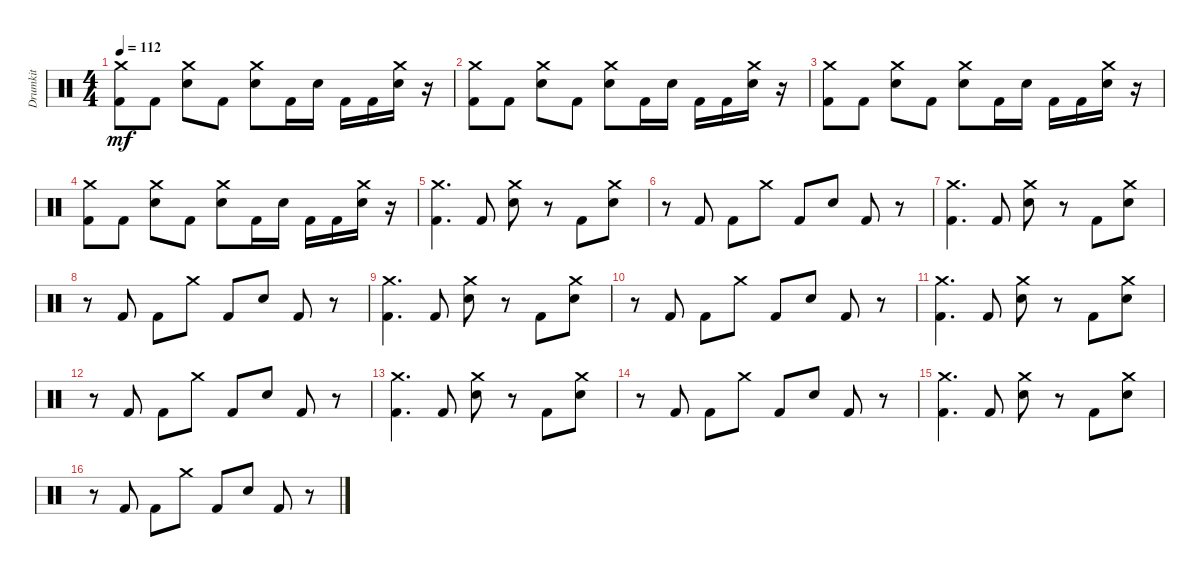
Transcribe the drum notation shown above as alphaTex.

\track ("Drumkit" "Drumkit") {instrument percussion}
\staff {score}
\articulation defaults
\ts (4 4)
\tempo 112
\clef neutral
\ks c
("Kick (hit) 2" "Crash medium (hit)").8{dy mf} "Kick (hit) 2".8 ("Snare (hit) 2" "Crash medium (hit)").8 "Kick (hit) 2".8 ("Snare (hit) 2" "Crash medium (hit)").8 "Kick (hit) 2".16 "Snare (hit) 2".16 "Kick (hit) 2".16 "Kick (hit) 2".16 ("Snare (hit) 2" "Crash medium (hit)").16 r.16 |
("Kick (hit) 2" "Crash medium (hit)").8 "Kick (hit) 2".8 ("Snare (hit) 2" "Crash medium (hit)").8 "Kick (hit) 2".8 ("Snare (hit) 2" "Crash medium (hit)").8 "Kick (hit) 2".16 "Snare (hit) 2".16 "Kick (hit) 2".16 "Kick (hit) 2".16 ("Snare (hit) 2" "Crash medium (hit)").16 r.16 |
("Kick (hit) 2" "Crash medium (hit)").8 "Kick (hit) 2".8 ("Snare (hit) 2" "Crash medium (hit)").8 "Kick (hit) 2".8 ("Snare (hit) 2" "Crash medium (hit)").8 "Kick (hit) 2".16 "Snare (hit) 2".16 "Kick (hit) 2".16 "Kick (hit) 2".16 ("Snare (hit) 2" "Crash medium (hit)").16 r.16 |
("Kick (hit) 2" "Crash medium (hit)").8 "Kick (hit) 2".8 ("Snare (hit) 2" "Crash medium (hit)").8 "Kick (hit) 2".8 ("Snare (hit) 2" "Crash medium (hit)").8 "Kick (hit) 2".16 "Snare (hit) 2".16 "Kick (hit) 2".16 "Kick (hit) 2".16 ("Snare (hit) 2" "Crash medium (hit)").16 r.16 |
("Kick (hit) 2" "Crash medium (hit)").4{d} "Kick (hit) 2".8 ("Snare (hit) 2" "Crash medium (hit)").8 r.8 "Kick (hit) 2".8 ("Snare (hit) 2" "Crash medium (hit)").8 |
r.8 "Kick (hit) 2".8 "Kick (hit) 2".8 "Crash medium (hit)".8 "Kick (hit) 2".8 "Snare (hit) 2".8 "Kick (hit) 2".8 r.8 |
("Kick (hit) 2" "Crash medium (hit)").4{d} "Kick (hit) 2".8 ("Snare (hit) 2" "Crash medium (hit)").8 r.8 "Kick (hit) 2".8 ("Snare (hit) 2" "Crash medium (hit)").8 |
r.8 "Kick (hit) 2".8 "Kick (hit) 2".8 "Crash medium (hit)".8 "Kick (hit) 2".8 "Snare (hit) 2".8 "Kick (hit) 2".8 r.8 |
("Kick (hit) 2" "Crash medium (hit)").4{d} "Kick (hit) 2".8 ("Snare (hit) 2" "Crash medium (hit)").8 r.8 "Kick (hit) 2".8 ("Snare (hit) 2" "Crash medium (hit)").8 |
r.8 "Kick (hit) 2".8 "Kick (hit) 2".8 "Crash medium (hit)".8 "Kick (hit) 2".8 "Snare (hit) 2".8 "Kick (hit) 2".8 r.8 |
("Kick (hit) 2" "Crash medium (hit)").4{d} "Kick (hit) 2".8 ("Snare (hit) 2" "Crash medium (hit)").8 r.8 "Kick (hit) 2".8 ("Snare (hit) 2" "Crash medium (hit)").8 |
r.8 "Kick (hit) 2".8 "Kick (hit) 2".8 "Crash medium (hit)".8 "Kick (hit) 2".8 "Snare (hit) 2".8 "Kick (hit) 2".8 r.8 |
("Kick (hit) 2" "Crash medium (hit)").4{d} "Kick (hit) 2".8 ("Snare (hit) 2" "Crash medium (hit)").8 r.8 "Kick (hit) 2".8 ("Snare (hit) 2" "Crash medium (hit)").8 |
r.8 "Kick (hit) 2".8 "Kick (hit) 2".8 "Crash medium (hit)".8 "Kick (hit) 2".8 "Snare (hit) 2".8 "Kick (hit) 2".8 r.8 |
("Kick (hit) 2" "Crash medium (hit)").4{d} "Kick (hit) 2".8 ("Snare (hit) 2" "Crash medium (hit)").8 r.8 "Kick (hit) 2".8 ("Snare (hit) 2" "Crash medium (hit)").8 |
r.8 "Kick (hit) 2".8 "Kick (hit) 2".8 "Crash medium (hit)".8 "Kick (hit) 2".8 "Snare (hit) 2".8 "Kick (hit) 2".8 r.8
